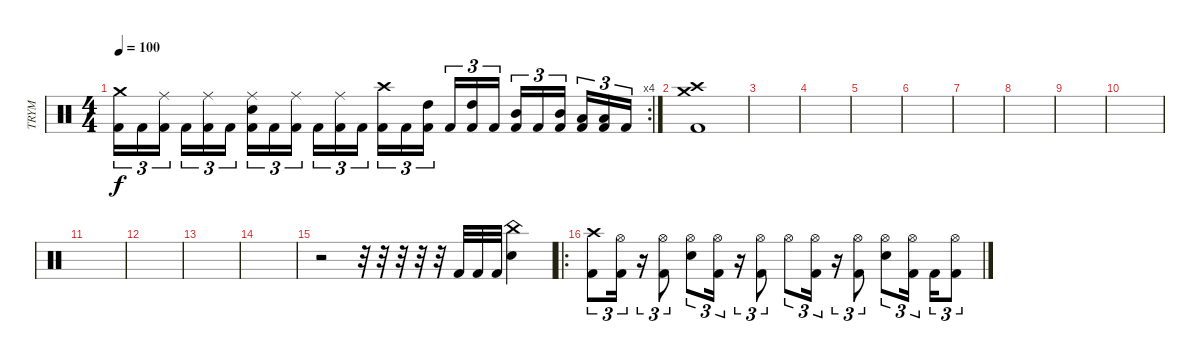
\track ("TRYM" "TRYM") {instrument percussion}
\staff {score}
\articulation defaults
\rc 4
\ts (4 4)
\tempo 100
\clef neutral
\ks c
("Kick (hit) 2" "Crash medium (hit)").16{tu (3 2) dy f} "Kick (hit) 2".16{tu (3 2)} ("Kick (hit) 2" "Ride (middle)").16{tu (3 2) beam splitsecondary} "Kick (hit) 2".16{tu (3 2)} ("Kick (hit) 2" "Ride (middle)").16{tu (3 2)} "Kick (hit) 2".16{tu (3 2)} ("Kick (hit) 2" "Ride (middle)" "Electric Snare (hit)").16{tu (3 2)} "Kick (hit) 2".16{tu (3 2)} ("Kick (hit) 2" "Ride (middle)").16{tu (3 2) beam splitsecondary} "Kick (hit) 2".16{tu (3 2)} ("Kick (hit) 2" "Ride (middle)").16{tu (3 2)} "Kick (hit) 2".16{tu (3 2)} ("Kick (hit) 2" "Crash high (hit)").16{tu (3 2)} "Kick (hit) 2".16{tu (3 2)} ("Kick (hit) 2" "High Tom (hit)").16{tu (3 2) beam splitsecondary} "Kick (hit) 2".16{tu (3 2)} ("Kick (hit) 2" "High Tom (hit)").16{tu (3 2)} "Kick (hit) 2".16{tu (3 2)} ("Kick (hit) 2" "Mid Tom (hit)").16{tu (3 2)} "Kick (hit) 2".16{tu (3 2)} ("Kick (hit) 2" "Mid Tom (hit)").16{tu (3 2) beam splitsecondary} ("Kick (hit) 2" "Low Tom (hit)").16{tu (3 2)} ("Kick (hit) 2" "Low Tom (hit)").16{tu (3 2)} "Kick (hit) 2".16{tu (3 2)} |
("Kick (hit) 2" "Crash medium (hit)" "Crash high (hit)").1 |
|
|
|
|
|
|
|
|
|
|
|
|
r.2 r.32 r.32 r.32 r.32 r.32 "Kick (hit) 2".32 "Kick (hit) 2".32 "Kick (hit) 2".32 ("Electric Snare (hit)" "China (hit)").4 |
\ro
("Kick (hit) 2" "Crash high (hit)").8{tu (3 2)} ("Kick (hit) 2" "Hi-Hat (open)").16{tu (3 2)} r.16{tu (3 2)} ("Kick (hit) 2" "Hi-Hat (open)").8{tu (3 2)} ("Hi-Hat (open)" "Electric Snare (hit)").8{tu (3 2)} ("Kick (hit) 2" "Hi-Hat (open)").16{tu (3 2)} r.16{tu (3 2)} ("Kick (hit) 2" "Hi-Hat (open)").8{tu (3 2)} "Hi-Hat (open)".8{tu (3 2)} ("Kick (hit) 2" "Hi-Hat (open)").16{tu (3 2)} r.16{tu (3 2)} ("Kick (hit) 2" "Hi-Hat (open)").8{tu (3 2)} ("Hi-Hat (open)" "Electric Snare (hit)").8{tu (3 2)} ("Kick (hit) 2" "Hi-Hat (open)").16{tu (3 2) beam splitsecondary} "Kick (hit) 2".16{tu (3 2)} ("Kick (hit) 2" "Hi-Hat (open)").8{tu (3 2)}
